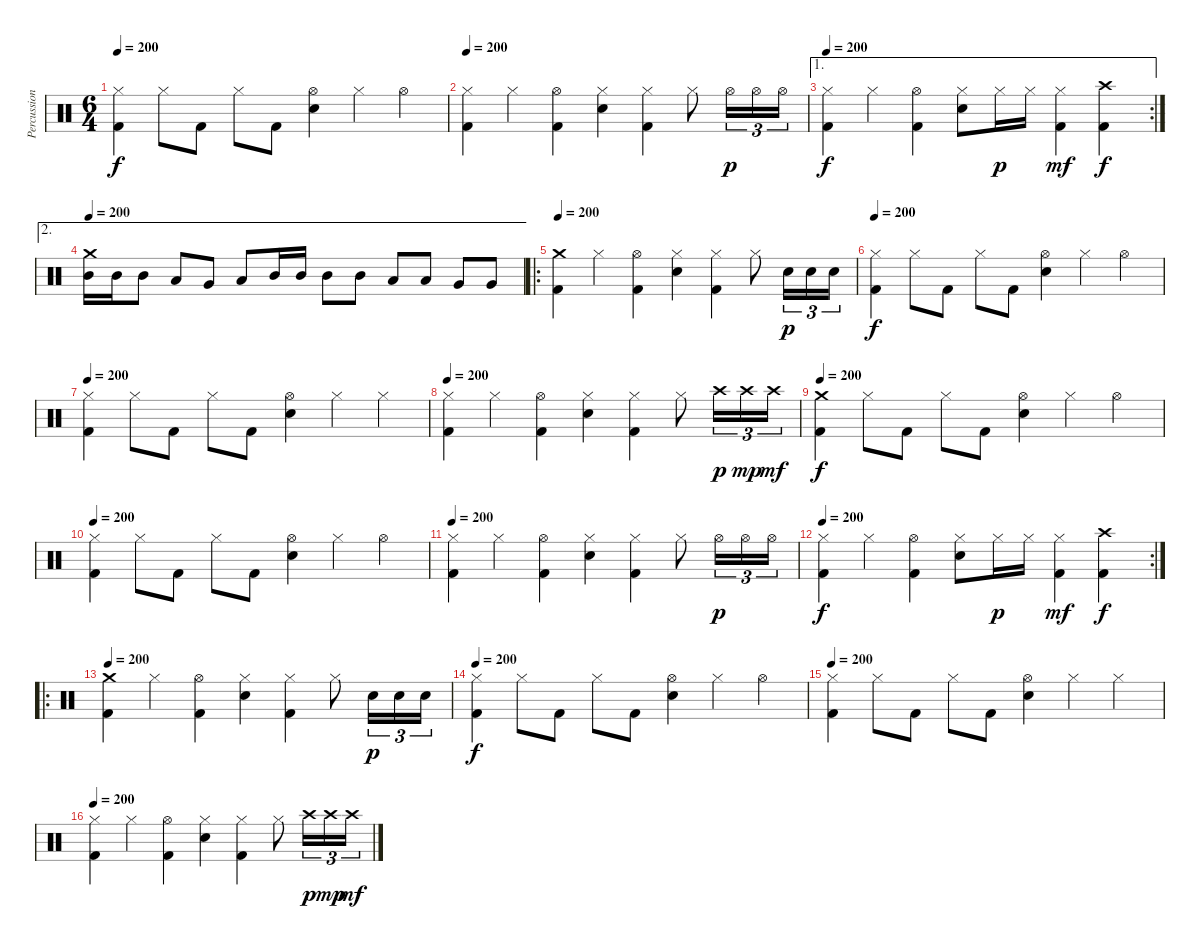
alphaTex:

\track ("Percussions" "Percussion") {instrument percussion}
\staff {score}
\articulation defaults
\ts (6 4)
\tempo 200
\clef neutral
\ks c
("Hi-Hat (closed)" "Kick (hit) 2").4{dy f} "Hi-Hat (closed)".8 "Kick (hit) 2".8 "Hi-Hat (closed)".8 "Kick (hit) 2".8 ("Hi-Hat (open)" "Electric Snare (hit)").4 "Hi-Hat (closed)".4 "Hi-Hat (open)".4 |
\tempo 200
("Hi-Hat (closed)" "Kick (hit) 2").4 "Hi-Hat (closed)".4 ("Hi-Hat (open)" "Kick (hit) 2").4 ("Hi-Hat (closed)" "Electric Snare (hit)").4 ("Hi-Hat (closed)" "Kick (hit) 2").4 "Hi-Hat (closed)".8 "Hi-Hat (open)".16{tu (3 2) dy p} "Hi-Hat (open)".16{tu (3 2)} "Hi-Hat (open)".16{tu (3 2)} |
\ae 1
\rc 2
\tempo 200
("Hi-Hat (closed)" "Kick (hit) 2").4{dy f} "Hi-Hat (closed)".4 ("Hi-Hat (open)" "Kick (hit) 2").4 ("Hi-Hat (closed)" "Electric Snare (hit)").8 "Hi-Hat (closed)".16{dy p} "Hi-Hat (closed)".16 ("Hi-Hat (closed)" "Kick (hit) 2").4{dy mf} ("Crash high (hit)" "Kick (hit) 2").4{dy f} |
\ae 2
\tempo 200
("Crash medium (hit)" "Mid Tom (hit)").16 "Mid Tom (hit)".16 "Mid Tom (hit)".8 "Low Tom (hit)".8 "Very Low Tom (hit)".8 "Low Floor Tom (hit)".8 "Mid Tom (hit)".16 "Mid Tom (hit)".16 "Mid Tom (hit)".8 "Mid Tom (hit)".8 "Low Tom (hit)".8 "Low Tom (hit)".8 "Very Low Tom (hit)".8 "Very Low Tom (hit)".8 |
\ro
\tempo 200
("Crash medium (hit)" "Kick (hit) 2").4 "Hi-Hat (closed)".4 ("Hi-Hat (open)" "Kick (hit) 2").4 ("Hi-Hat (closed)" "Electric Snare (hit)").4 ("Hi-Hat (closed)" "Kick (hit) 2").4 "Hi-Hat (closed)".8 "Electric Snare (hit)".16{tu (3 2) dy p} "Electric Snare (hit)".16{tu (3 2)} "Electric Snare (hit)".16{tu (3 2)} |
\tempo 200
("Hi-Hat (closed)" "Kick (hit) 2").4{dy f} "Hi-Hat (closed)".8 "Kick (hit) 2".8 "Hi-Hat (closed)".8 "Kick (hit) 2".8 ("Hi-Hat (open)" "Electric Snare (hit)").4 "Hi-Hat (closed)".4 "Hi-Hat (open)".4 |
\tempo 200
("Hi-Hat (closed)" "Kick (hit) 2").4 "Hi-Hat (closed)".8 "Kick (hit) 2".8 "Hi-Hat (closed)".8 "Kick (hit) 2".8 ("Hi-Hat (open)" "Electric Snare (hit)").4 "Hi-Hat (closed)".4 "Hi-Hat (closed)".4 |
\tempo 200
("Hi-Hat (closed)" "Kick (hit) 2").4 "Hi-Hat (closed)".4 ("Hi-Hat (open)" "Kick (hit) 2").4 ("Hi-Hat (closed)" "Electric Snare (hit)").4 ("Hi-Hat (closed)" "Kick (hit) 2").4 "Hi-Hat (closed)".8 "Crash high (hit)".16{tu (3 2) dy p} "Crash high (hit)".16{tu (3 2) dy mp} "Crash high (hit)".16{tu (3 2) dy mf} |
\tempo 200
("Crash medium (hit)" "Kick (hit) 2").4{dy f} "Hi-Hat (closed)".8 "Kick (hit) 2".8 "Hi-Hat (closed)".8 "Kick (hit) 2".8 ("Hi-Hat (open)" "Electric Snare (hit)").4 "Hi-Hat (closed)".4 "Hi-Hat (open)".4 |
\tempo 200
("Hi-Hat (closed)" "Kick (hit) 2").4 "Hi-Hat (closed)".8 "Kick (hit) 2".8 "Hi-Hat (closed)".8 "Kick (hit) 2".8 ("Hi-Hat (open)" "Electric Snare (hit)").4 "Hi-Hat (closed)".4 "Hi-Hat (open)".4 |
\tempo 200
("Hi-Hat (closed)" "Kick (hit) 2").4 "Hi-Hat (closed)".4 ("Hi-Hat (open)" "Kick (hit) 2").4 ("Hi-Hat (closed)" "Electric Snare (hit)").4 ("Hi-Hat (closed)" "Kick (hit) 2").4 "Hi-Hat (closed)".8 "Hi-Hat (open)".16{tu (3 2) dy p} "Hi-Hat (open)".16{tu (3 2)} "Hi-Hat (open)".16{tu (3 2)} |
\rc 2
\tempo 200
("Hi-Hat (closed)" "Kick (hit) 2").4{dy f} "Hi-Hat (closed)".4 ("Hi-Hat (open)" "Kick (hit) 2").4 ("Hi-Hat (closed)" "Electric Snare (hit)").8 "Hi-Hat (closed)".16{dy p} "Hi-Hat (closed)".16 ("Hi-Hat (closed)" "Kick (hit) 2").4{dy mf} ("Crash high (hit)" "Kick (hit) 2").4{dy f} |
\ro
\tempo 200
("Crash medium (hit)" "Kick (hit) 2").4 "Hi-Hat (closed)".4 ("Hi-Hat (open)" "Kick (hit) 2").4 ("Hi-Hat (closed)" "Electric Snare (hit)").4 ("Hi-Hat (closed)" "Kick (hit) 2").4 "Hi-Hat (closed)".8 "Electric Snare (hit)".16{tu (3 2) dy p} "Electric Snare (hit)".16{tu (3 2)} "Electric Snare (hit)".16{tu (3 2)} |
\tempo 200
("Hi-Hat (closed)" "Kick (hit) 2").4{dy f} "Hi-Hat (closed)".8 "Kick (hit) 2".8 "Hi-Hat (closed)".8 "Kick (hit) 2".8 ("Hi-Hat (open)" "Electric Snare (hit)").4 "Hi-Hat (closed)".4 "Hi-Hat (open)".4 |
\tempo 200
("Hi-Hat (closed)" "Kick (hit) 2").4 "Hi-Hat (closed)".8 "Kick (hit) 2".8 "Hi-Hat (closed)".8 "Kick (hit) 2".8 ("Hi-Hat (open)" "Electric Snare (hit)").4 "Hi-Hat (closed)".4 "Hi-Hat (closed)".4 |
\tempo 200
("Hi-Hat (closed)" "Kick (hit) 2").4 "Hi-Hat (closed)".4 ("Hi-Hat (open)" "Kick (hit) 2").4 ("Hi-Hat (closed)" "Electric Snare (hit)").4 ("Hi-Hat (closed)" "Kick (hit) 2").4 "Hi-Hat (closed)".8 "Crash high (hit)".16{tu (3 2) dy p} "Crash high (hit)".16{tu (3 2) dy mp} "Crash high (hit)".16{tu (3 2) dy mf}
